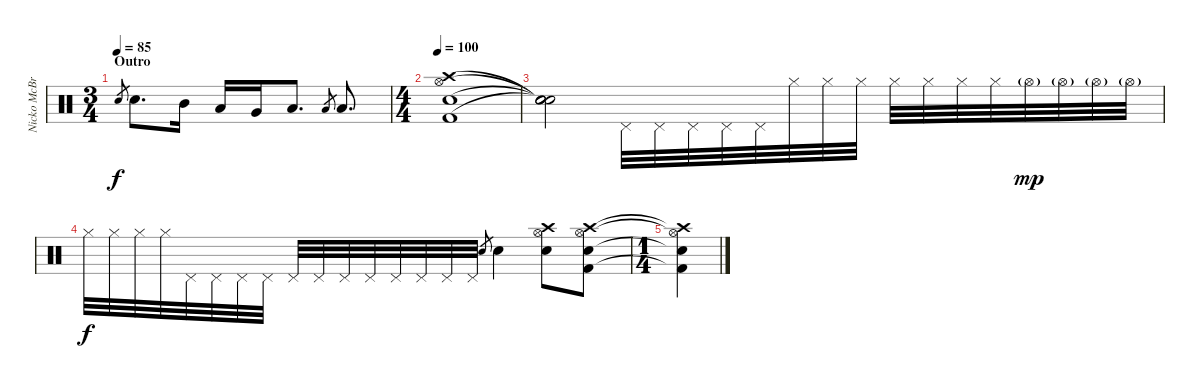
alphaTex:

\track ("Nicko McBrain" "Nicko McBr") {instrument percussion}
\staff {score}
\articulation defaults
\ts (3 4)
\section ("" "Outro")
\tempo 85
\clef neutral
\ks c "Snare (hit) 2".8{gr dy f} "Snare (hit) 2".8{d} "Mid Tom (hit)".16 "Low Tom (hit)".16 "Very Low Tom (hit)".16 "Low Floor Tom (hit)".8{d} "Low Tom (hit)".8{gr} "Low Tom (hit)".8{d}
|
\ts (4 4)
\tempo 100
("Snare (hit) 2" "Kick (hit) 2" "Hi-Hat (open)" "Crash high (hit)").1 |
("Snare (hit)"{t} "Snare (hit)"{t} "Snare (hit)"{t} "Snare (hit)"{t}).2 "Pedal Hi-Hat (hit)".32 "Pedal Hi-Hat (hit)".32 "Pedal Hi-Hat (hit)".32 "Pedal Hi-Hat (hit)".32 "Pedal Hi-Hat (hit)".32 "Hi-Hat (closed)".32 "Hi-Hat (closed)".32 "Hi-Hat (closed)".32 "Hi-Hat (closed)".32 "Hi-Hat (closed)".32 "Hi-Hat (closed)".32 "Hi-Hat (closed)".32 "Hi-Hat (open)"{g}.32{dy mp} "Hi-Hat (open)"{g}.32 "Hi-Hat (open)"{g}.32 "Hi-Hat (open)"{g}.32 |
"Hi-Hat (closed)".32{dy f} "Hi-Hat (closed)".32 "Hi-Hat (closed)".32 "Hi-Hat (closed)".32 "Pedal Hi-Hat (hit)".32 "Pedal Hi-Hat (hit)".32 "Pedal Hi-Hat (hit)".32 "Pedal Hi-Hat (hit)".32 "Pedal Hi-Hat (hit)".32 "Pedal Hi-Hat (hit)".32 "Pedal Hi-Hat (hit)".32 "Pedal Hi-Hat (hit)".32 "Pedal Hi-Hat (hit)".32 "Pedal Hi-Hat (hit)".32 "Pedal Hi-Hat (hit)".32 "Pedal Hi-Hat (hit)".32 "Snare (hit) 2".8{gr} "Snare (hit) 2".4 ("Snare (hit) 2" "Hi-Hat (open)" "Crash high (hit)").8 ("Snare (hit) 2" "Kick (hit) 2" "Hi-Hat (open)" "Crash high (hit)").8 |
\ts (1 4)
("Snare (hit) 2"{t} "Kick (hit) 2"{t} "Hi-Hat (open)"{t} "Crash high (hit)"{t}).4
